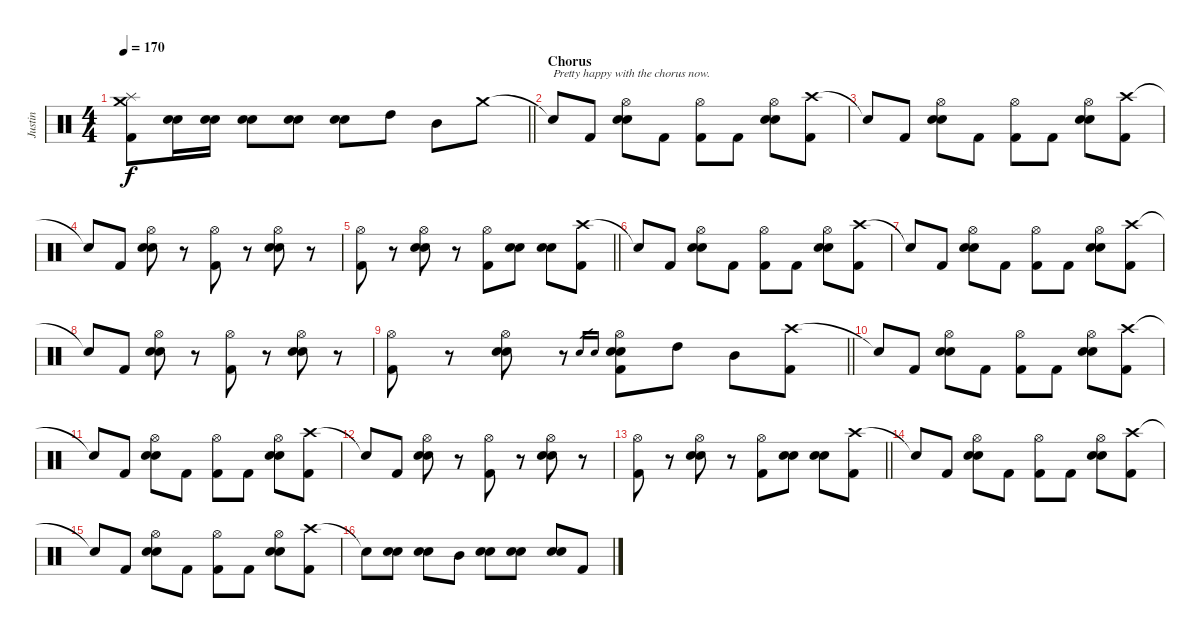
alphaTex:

\track ("Justin" "Justin") {instrument percussion}
\staff {score}
\articulation defaults
\ts (4 4)
\tempo 170
\clef neutral
\barLineRight lightlight
\ks c
("Crash medium (hit)" "Splash (hit)" "Kick (hit) 2").8{dy f} ("Electric Snare (hit)" "Snare (hit) 2").16 ("Electric Snare (hit)" "Snare (hit) 2").16 ("Electric Snare (hit)" "Snare (hit) 2").8 ("Electric Snare (hit)" "Snare (hit) 2").8 ("Electric Snare (hit)" "Snare (hit) 2").8 "High Tom (hit)".8 "Mid Tom (hit)".8 "Crash medium (hit)".8 |
\section ("" "Chorus")
"Snare (hit)"{t}.8{txt "Pretty happy with the chorus now."} "Kick (hit) 2".8 ("Hi-Hat (open)" "Electric Snare (hit)" "Snare (hit) 2").8 "Kick (hit) 2".8 ("Hi-Hat (open)" "Kick (hit) 2").8 "Kick (hit) 2".8 ("Hi-Hat (open)" "Electric Snare (hit)" "Snare (hit) 2").8 ("Crash high (hit)" "Kick (hit) 2").8 |
"Snare (hit)"{t}.8 "Kick (hit) 2".8 ("Hi-Hat (open)" "Electric Snare (hit)" "Snare (hit) 2").8 "Kick (hit) 2".8 ("Hi-Hat (open)" "Kick (hit) 2").8 "Kick (hit) 2".8 ("Hi-Hat (open)" "Electric Snare (hit)" "Snare (hit) 2").8 ("Crash high (hit)" "Kick (hit) 2").8 |
"Snare (hit)"{t}.8 "Kick (hit) 2".8 ("Hi-Hat (open)" "Electric Snare (hit)" "Snare (hit) 2").8 r.8 ("Hi-Hat (open)" "Kick (hit) 2").8 r.8 ("Hi-Hat (open)" "Electric Snare (hit)" "Snare (hit) 2").8 r.8 |
\barLineRight lightlight
("Hi-Hat (open)" "Kick (hit) 2").8 r.8 ("Hi-Hat (open)" "Electric Snare (hit)" "Snare (hit) 2").8 r.8 ("Hi-Hat (open)" "Kick (hit) 2").8 ("Electric Snare (hit)" "Snare (hit) 2").8 ("Electric Snare (hit)" "Snare (hit) 2").8 ("Crash high (hit)" "Kick (hit) 2").8 |
"Snare (hit)"{t}.8 "Kick (hit) 2".8 ("Hi-Hat (open)" "Electric Snare (hit)" "Snare (hit) 2").8 "Kick (hit) 2".8 ("Hi-Hat (open)" "Kick (hit) 2").8 "Kick (hit) 2".8 ("Hi-Hat (open)" "Electric Snare (hit)" "Snare (hit) 2").8 ("Crash high (hit)" "Kick (hit) 2").8 |
"Snare (hit)"{t}.8 "Kick (hit) 2".8 ("Hi-Hat (open)" "Electric Snare (hit)" "Snare (hit) 2").8 "Kick (hit) 2".8 ("Hi-Hat (open)" "Kick (hit) 2").8 "Kick (hit) 2".8 ("Hi-Hat (open)" "Electric Snare (hit)" "Snare (hit) 2").8 ("Crash high (hit)" "Kick (hit) 2").8 |
"Snare (hit)"{t}.8 "Kick (hit) 2".8 ("Hi-Hat (open)" "Electric Snare (hit)" "Snare (hit) 2").8 r.8 ("Hi-Hat (open)" "Kick (hit) 2").8 r.8 ("Hi-Hat (open)" "Electric Snare (hit)" "Snare (hit) 2").8 r.8 |
\barLineRight lightlight
("Hi-Hat (open)" "Kick (hit) 2").8 r.8 ("Hi-Hat (open)" "Electric Snare (hit)" "Snare (hit) 2").8 r.8 "Electric Snare (hit)".16{gr} "Snare (hit) 2".16{gr} ("Hi-Hat (open)" "Electric Snare (hit)" "Snare (hit) 2" "Kick (hit) 2").8 "High Tom (hit)".8 "Mid Tom (hit)".8 ("Crash high (hit)" "Kick (hit) 2").8 |
"Snare (hit)"{t}.8 "Kick (hit) 2".8 ("Hi-Hat (open)" "Electric Snare (hit)" "Snare (hit) 2").8 "Kick (hit) 2".8 ("Hi-Hat (open)" "Kick (hit) 2").8 "Kick (hit) 2".8 ("Hi-Hat (open)" "Electric Snare (hit)" "Snare (hit) 2").8 ("Crash high (hit)" "Kick (hit) 2").8 |
"Snare (hit)"{t}.8 "Kick (hit) 2".8 ("Hi-Hat (open)" "Electric Snare (hit)" "Snare (hit) 2").8 "Kick (hit) 2".8 ("Hi-Hat (open)" "Kick (hit) 2").8 "Kick (hit) 2".8 ("Hi-Hat (open)" "Electric Snare (hit)" "Snare (hit) 2").8 ("Crash high (hit)" "Kick (hit) 2").8 |
"Snare (hit)"{t}.8 "Kick (hit) 2".8 ("Hi-Hat (open)" "Electric Snare (hit)" "Snare (hit) 2").8 r.8 ("Hi-Hat (open)" "Kick (hit) 2").8 r.8 ("Hi-Hat (open)" "Electric Snare (hit)" "Snare (hit) 2").8 r.8 |
\barLineRight lightlight
("Hi-Hat (open)" "Kick (hit) 2").8 r.8 ("Hi-Hat (open)" "Electric Snare (hit)" "Snare (hit) 2").8 r.8 ("Hi-Hat (open)" "Kick (hit) 2").8 ("Electric Snare (hit)" "Snare (hit) 2").8 ("Electric Snare (hit)" "Snare (hit) 2").8 ("Crash high (hit)" "Kick (hit) 2").8 |
"Snare (hit)"{t}.8 "Kick (hit) 2".8 ("Hi-Hat (open)" "Electric Snare (hit)" "Snare (hit) 2").8 "Kick (hit) 2".8 ("Hi-Hat (open)" "Kick (hit) 2").8 "Kick (hit) 2".8 ("Hi-Hat (open)" "Electric Snare (hit)" "Snare (hit) 2").8 ("Crash high (hit)" "Kick (hit) 2").8 |
"Snare (hit)"{t}.8 "Kick (hit) 2".8 ("Hi-Hat (open)" "Electric Snare (hit)" "Snare (hit) 2").8 "Kick (hit) 2".8 ("Hi-Hat (open)" "Kick (hit) 2").8 "Kick (hit) 2".8 ("Hi-Hat (open)" "Electric Snare (hit)" "Snare (hit) 2").8 ("Crash high (hit)" "Kick (hit) 2").8 |
"Snare (hit)"{t}.8 ("Electric Snare (hit)" "Snare (hit) 2").8 ("Electric Snare (hit)" "Snare (hit) 2").8 "Mid Tom (hit)".8 ("Electric Snare (hit)" "Snare (hit) 2").8 ("Electric Snare (hit)" "Snare (hit) 2").8 ("Electric Snare (hit)" "Snare (hit) 2").8 "Kick (hit) 2".8
